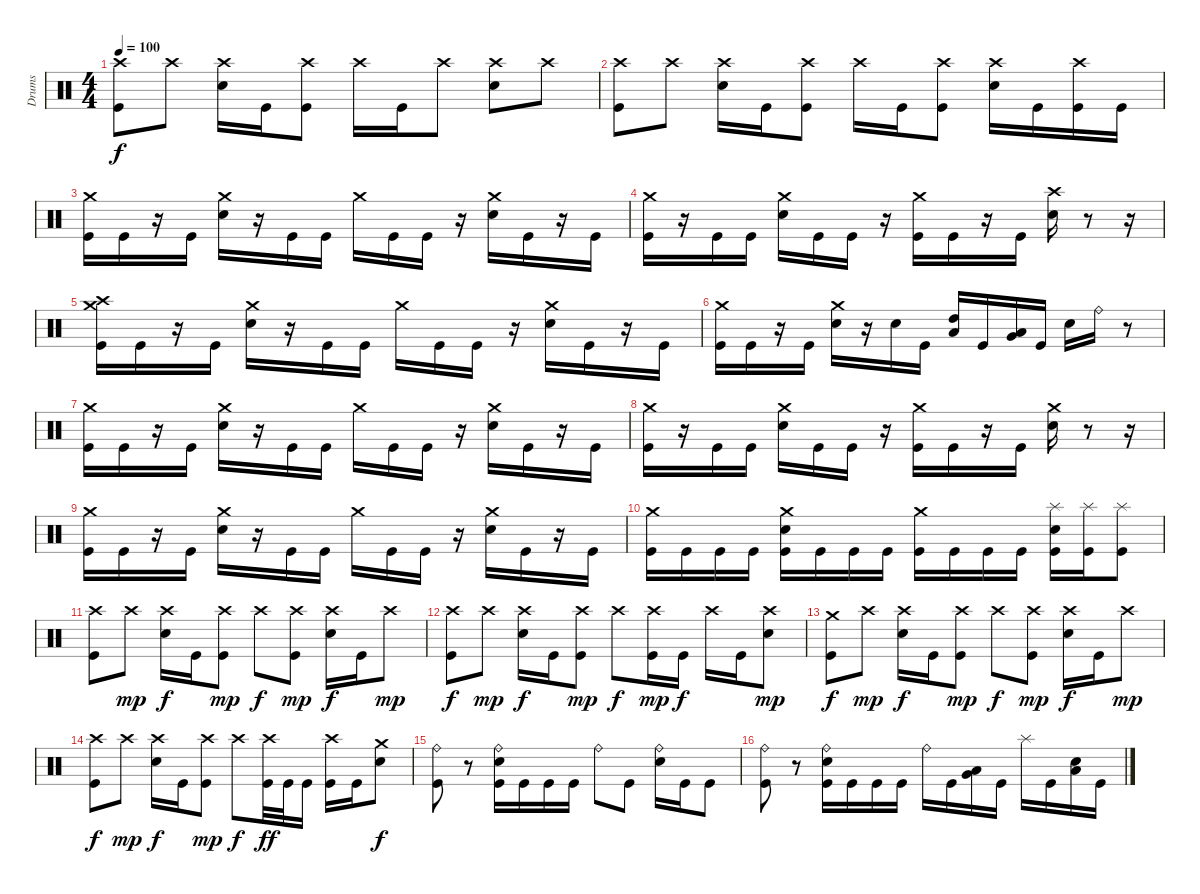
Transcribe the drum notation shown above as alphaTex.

\track ("Drums" "Drums") {instrument percussion}
\staff {score}
\articulation defaults
\ts (4 4)
\tempo 100
\clef neutral
\ks c
("Crash high (hit)" "Kick (hit)").8{dy f} "Crash high (hit)".8 ("Crash high (hit)" "Electric Snare (hit)").16 "Kick (hit)".16 ("Crash high (hit)" "Kick (hit)").8 "Crash high (hit)".16 "Kick (hit)".16 "Crash high (hit)".8 ("Crash high (hit)" "Electric Snare (hit)").8 "Crash high (hit)".8 |
("Crash high (hit)" "Kick (hit)").8 "Crash high (hit)".8 ("Crash high (hit)" "Electric Snare (hit)").16 "Kick (hit)".16 ("Crash high (hit)" "Kick (hit)").8 "Crash high (hit)".16 "Kick (hit)".16 ("Crash high (hit)" "Kick (hit)").8 ("Crash high (hit)" "Electric Snare (hit)").16 "Kick (hit)".16 ("Crash high (hit)" "Kick (hit)").16 "Kick (hit)".16 |
("Crash medium (hit)" "Kick (hit)").16 "Kick (hit)".16 r.16 "Kick (hit)".16 ("Crash medium (hit)" "Electric Snare (hit)").16 r.16 "Kick (hit)".16 "Kick (hit)".16 "Crash medium (hit)".16 "Kick (hit)".16 "Kick (hit)".16 r.16 ("Crash medium (hit)" "Electric Snare (hit)").16 "Kick (hit)".16 r.16 "Kick (hit)".16 |
("Crash medium (hit)" "Kick (hit)").16 r.16 "Kick (hit)".16 "Kick (hit)".16 ("Crash medium (hit)" "Electric Snare (hit)").16 "Kick (hit)".16 "Kick (hit)".16 r.16 ("Crash medium (hit)" "Kick (hit)").16 "Kick (hit)".16 r.16 "Kick (hit)".16 ("Crash high (hit)" "Electric Snare (hit)").16 r.8 r.16 |
("Crash high (hit)" "Crash medium (hit)" "Kick (hit)").16 "Kick (hit)".16 r.16 "Kick (hit)".16 ("Crash medium (hit)" "Electric Snare (hit)").16 r.16 "Kick (hit)".16 "Kick (hit)".16 "Crash medium (hit)".16 "Kick (hit)".16 "Kick (hit)".16 r.16 ("Crash medium (hit)" "Electric Snare (hit)").16 "Kick (hit)".16 r.16 "Kick (hit)".16 |
("Crash medium (hit)" "Kick (hit)").16 "Kick (hit)".16 r.16 "Kick (hit)".16 ("Crash medium (hit)" "Electric Snare (hit)").16 r.16 "Electric Snare (hit)".16 "Kick (hit)".16 ("Low Tom (hit)" "High Tom (hit)").16 "Kick (hit)".16 ("Very Low Tom (hit)" "Low Tom (hit)").16 "Kick (hit)".16 "Electric Snare (hit)".16 "Ride (bell)".16 r.8 |
("Crash medium (hit)" "Kick (hit)").16 "Kick (hit)".16 r.16 "Kick (hit)".16 ("Crash medium (hit)" "Electric Snare (hit)").16 r.16 "Kick (hit)".16 "Kick (hit)".16 "Crash medium (hit)".16 "Kick (hit)".16 "Kick (hit)".16 r.16 ("Crash medium (hit)" "Electric Snare (hit)").16 "Kick (hit)".16 r.16 "Kick (hit)".16 |
("Crash medium (hit)" "Kick (hit)").16 r.16 "Kick (hit)".16 "Kick (hit)".16 ("Crash medium (hit)" "Electric Snare (hit)").16 "Kick (hit)".16 "Kick (hit)".16 r.16 ("Crash medium (hit)" "Kick (hit)").16 "Kick (hit)".16 r.16 "Kick (hit)".16 ("Crash medium (hit)" "Electric Snare (hit)").16 r.8 r.16 |
("Crash medium (hit)" "Kick (hit)").16 "Kick (hit)".16 r.16 "Kick (hit)".16 ("Crash medium (hit)" "Electric Snare (hit)").16 r.16 "Kick (hit)".16 "Kick (hit)".16 "Crash medium (hit)".16 "Kick (hit)".16 "Kick (hit)".16 r.16 ("Crash medium (hit)" "Electric Snare (hit)").16 "Kick (hit)".16 r.16 "Kick (hit)".16 |
("Crash medium (hit)" "Kick (hit)").16 "Kick (hit)".16 "Kick (hit)".16 "Kick (hit)".16 ("Crash medium (hit)" "Electric Snare (hit)" "Kick (hit)").16 "Kick (hit)".16 "Kick (hit)".16 "Kick (hit)".16 ("Crash medium (hit)" "Kick (hit)").16 "Kick (hit)".16 "Kick (hit)".16 "Kick (hit)".16 ("Splash (hit)" "Electric Snare (hit)" "Kick (hit)").16 ("Splash (hit)" "Kick (hit)").16 ("Splash (hit)" "Kick (hit)").8 |
("Crash high (hit)" "Kick (hit)").8 "Crash high (hit)".8{dy mp} ("Crash high (hit)" "Electric Snare (hit)").16{dy f} "Kick (hit)".16 ("Crash high (hit)" "Kick (hit)").8{dy mp} "Crash high (hit)".8{dy f} ("Crash high (hit)" "Kick (hit)").8{dy mp} ("Crash high (hit)" "Electric Snare (hit)").16{dy f} "Kick (hit)".16 "Crash high (hit)".8{dy mp} |
("Crash high (hit)" "Kick (hit)").8{dy f} "Crash high (hit)".8{dy mp} ("Crash high (hit)" "Electric Snare (hit)").16{dy f} "Kick (hit)".16 ("Crash high (hit)" "Kick (hit)").8{dy mp} "Crash high (hit)".8{dy f} ("Crash high (hit)" "Kick (hit)").16{dy mp} "Kick (hit)".16{dy f} "Crash high (hit)".16 "Kick (hit)".16 ("Crash high (hit)" "Electric Snare (hit)").8{dy mp} |
("Crash medium (hit)" "Kick (hit)").8{dy f} "Crash high (hit)".8{dy mp} ("Crash high (hit)" "Electric Snare (hit)").16{dy f} "Kick (hit)".16 ("Crash high (hit)" "Kick (hit)").8{dy mp} "Crash high (hit)".8{dy f} ("Crash high (hit)" "Kick (hit)").8{dy mp} ("Crash high (hit)" "Electric Snare (hit)").16{dy f} "Kick (hit)".16 "Crash high (hit)".8{dy mp} |
("Crash high (hit)" "Kick (hit)").8{dy f} "Crash high (hit)".8{dy mp} ("Crash high (hit)" "Electric Snare (hit)").16{dy f} "Kick (hit)".16 ("Crash high (hit)" "Kick (hit)").8{dy mp} "Crash high (hit)".8{dy f} ("Crash high (hit)" "Kick (hit)").32{dy ff} "Kick (hit)".32 "Kick (hit)".16 ("Crash high (hit)" "Kick (hit)").16 "Kick (hit)".16 ("Crash medium (hit)" "Electric Snare (hit)").8{dy f} |
("Ride (bell)" "Kick (hit)").8 r.8 ("Ride (bell)" "Electric Snare (hit)" "Kick (hit)").16 "Kick (hit)".16 "Kick (hit)".16 "Kick (hit)".16 "Ride (bell)".8 "Kick (hit)".8 ("Ride (bell)" "Electric Snare (hit)").16 "Kick (hit)".16 "Kick (hit)".8 |
("Ride (bell)" "Kick (hit)").8 r.8 ("Ride (bell)" "Electric Snare (hit)" "Kick (hit)").16 "Kick (hit)".16 "Kick (hit)".16 "Kick (hit)".16 "Ride (bell)".16 "Kick (hit)".16 ("Low Tom (hit)" "Very Low Tom (hit)").16 "Kick (hit)".16 "Splash (hit)".16 "Kick (hit)".16 ("Low Floor Tom (hit)" "Electric Snare (hit)").16 "Kick (hit)".16
